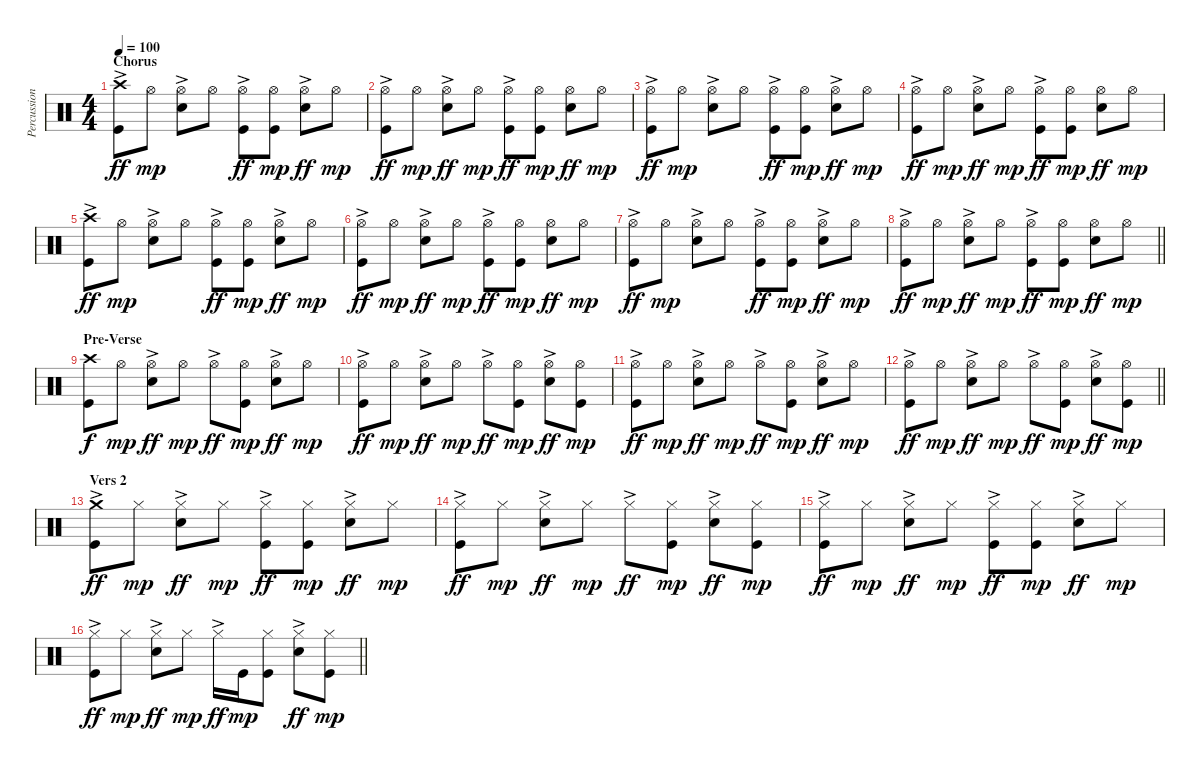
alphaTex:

\track ("Percussions" "Percussion") {instrument percussion}
\staff {score}
\articulation defaults
\ts (4 4)
\section ("" "Chorus")
\tempo 100
\clef neutral
\ks c
("Crash high (hit)"{ac} "Kick (hit)").8{dy ff} "Hi-Hat (open)".8{dy mp} ("Hi-Hat (open)"{ac} "Snare (hit) 2").8 "Hi-Hat (open)".8 ("Hi-Hat (open)"{ac} "Kick (hit)").8{dy ff} ("Hi-Hat (open)" "Kick (hit)").8{dy mp} ("Hi-Hat (open)"{ac} "Snare (hit) 2").8{dy ff} "Hi-Hat (open)".8{dy mp} |
("Hi-Hat (open)"{ac} "Kick (hit)").8{dy ff} "Hi-Hat (open)".8{dy mp} ("Hi-Hat (open)"{ac} "Snare (hit) 2").8{dy ff} "Hi-Hat (open)".8{dy mp} ("Hi-Hat (open)"{ac} "Kick (hit)").8{dy ff} ("Hi-Hat (open)" "Kick (hit)").8{dy mp} ("Hi-Hat (open)" "Snare (hit) 2").8{dy ff} "Hi-Hat (open)".8{dy mp} |
("Hi-Hat (open)"{ac} "Kick (hit)").8{dy ff} "Hi-Hat (open)".8{dy mp} ("Hi-Hat (open)"{ac} "Snare (hit) 2").8 "Hi-Hat (open)".8 ("Hi-Hat (open)"{ac} "Kick (hit)").8{dy ff} ("Hi-Hat (open)" "Kick (hit)").8{dy mp} ("Hi-Hat (open)"{ac} "Snare (hit) 2").8{dy ff} "Hi-Hat (open)".8{dy mp} |
("Hi-Hat (open)"{ac} "Kick (hit)").8{dy ff} "Hi-Hat (open)".8{dy mp} ("Hi-Hat (open)"{ac} "Snare (hit) 2").8{dy ff} "Hi-Hat (open)".8{dy mp} ("Hi-Hat (open)"{ac} "Kick (hit)").8{dy ff} ("Hi-Hat (open)" "Kick (hit)").8{dy mp} ("Hi-Hat (open)" "Snare (hit) 2").8{dy ff} "Hi-Hat (open)".8{dy mp} |
("Crash high (hit)"{ac} "Kick (hit)").8{dy ff} "Hi-Hat (open)".8{dy mp} ("Hi-Hat (open)"{ac} "Snare (hit) 2").8 "Hi-Hat (open)".8 ("Hi-Hat (open)"{ac} "Kick (hit)").8{dy ff} ("Hi-Hat (open)" "Kick (hit)").8{dy mp} ("Hi-Hat (open)"{ac} "Snare (hit) 2").8{dy ff} "Hi-Hat (open)".8{dy mp} |
("Hi-Hat (open)"{ac} "Kick (hit)").8{dy ff} "Hi-Hat (open)".8{dy mp} ("Hi-Hat (open)"{ac} "Snare (hit) 2").8{dy ff} "Hi-Hat (open)".8{dy mp} ("Hi-Hat (open)"{ac} "Kick (hit)").8{dy ff} ("Hi-Hat (open)" "Kick (hit)").8{dy mp} ("Hi-Hat (open)" "Snare (hit) 2").8{dy ff} "Hi-Hat (open)".8{dy mp} |
("Hi-Hat (open)"{ac} "Kick (hit)").8{dy ff} "Hi-Hat (open)".8{dy mp} ("Hi-Hat (open)"{ac} "Snare (hit) 2").8 "Hi-Hat (open)".8 ("Hi-Hat (open)"{ac} "Kick (hit)").8{dy ff} ("Hi-Hat (open)" "Kick (hit)").8{dy mp} ("Hi-Hat (open)"{ac} "Snare (hit) 2").8{dy ff} "Hi-Hat (open)".8{dy mp} |
\barLineRight lightlight
("Hi-Hat (open)"{ac} "Kick (hit)").8{dy ff} "Hi-Hat (open)".8{dy mp} ("Hi-Hat (open)"{ac} "Snare (hit) 2").8{dy ff} "Hi-Hat (open)".8{dy mp} ("Hi-Hat (open)"{ac} "Kick (hit)").8{dy ff} ("Hi-Hat (open)" "Kick (hit)").8{dy mp} ("Hi-Hat (open)" "Snare (hit) 2").8{dy ff} "Hi-Hat (open)".8{dy mp} |
\section ("" "Pre-Verse")
("Crash high (hit)" "Kick (hit)").8{dy f} "Hi-Hat (open)".8{dy mp} ("Hi-Hat (open)"{ac} "Snare (hit) 2").8{dy ff} "Hi-Hat (open)".8{dy mp} "Hi-Hat (open)"{ac}.8{dy ff} ("Hi-Hat (open)" "Kick (hit)").8{dy mp} ("Hi-Hat (open)"{ac} "Snare (hit) 2").8{dy ff} "Hi-Hat (open)".8{dy mp} |
("Hi-Hat (open)"{ac} "Kick (hit)").8{dy ff} "Hi-Hat (open)".8{dy mp} ("Hi-Hat (open)"{ac} "Snare (hit) 2").8{dy ff} "Hi-Hat (open)".8{dy mp} "Hi-Hat (open)"{ac}.8{dy ff} ("Hi-Hat (open)" "Kick (hit)").8{dy mp} ("Hi-Hat (open)"{ac} "Snare (hit) 2").8{dy ff} ("Hi-Hat (open)" "Kick (hit)").8{dy mp} |
("Hi-Hat (open)"{ac} "Kick (hit)").8{dy ff} "Hi-Hat (open)".8{dy mp} ("Hi-Hat (open)"{ac} "Snare (hit) 2").8{dy ff} "Hi-Hat (open)".8{dy mp} "Hi-Hat (open)"{ac}.8{dy ff} ("Hi-Hat (open)" "Kick (hit)").8{dy mp} ("Hi-Hat (open)"{ac} "Snare (hit) 2").8{dy ff} "Hi-Hat (open)".8{dy mp} |
\barLineRight lightlight
("Hi-Hat (open)"{ac} "Kick (hit)").8{dy ff} "Hi-Hat (open)".8{dy mp} ("Hi-Hat (open)"{ac} "Snare (hit) 2").8{dy ff} "Hi-Hat (open)".8{dy mp} "Hi-Hat (open)"{ac}.8{dy ff} ("Hi-Hat (open)" "Kick (hit)").8{dy mp} ("Hi-Hat (open)"{ac} "Snare (hit) 2").8{dy ff} ("Hi-Hat (open)" "Kick (hit)").8{dy mp} |
\section ("" "Vers 2")
("Crash medium (hit)"{ac} "Kick (hit)").8{dy ff} "Hi-Hat (closed)".8{dy mp} ("Hi-Hat (closed)"{ac} "Snare (hit) 2").8{dy ff} "Hi-Hat (closed)".8{dy mp} ("Hi-Hat (closed)"{ac} "Kick (hit)").8{dy ff} ("Hi-Hat (closed)" "Kick (hit)").8{dy mp} ("Hi-Hat (closed)"{ac} "Snare (hit) 2").8{dy ff} "Hi-Hat (closed)".8{dy mp} |
("Hi-Hat (closed)"{ac} "Kick (hit)").8{dy ff} "Hi-Hat (closed)".8{dy mp} ("Hi-Hat (closed)"{ac} "Snare (hit) 2").8{dy ff} "Hi-Hat (closed)".8{dy mp} "Hi-Hat (closed)"{ac}.8{dy ff} ("Hi-Hat (closed)" "Kick (hit)").8{dy mp} ("Hi-Hat (closed)"{ac} "Snare (hit) 2").8{dy ff} ("Hi-Hat (closed)" "Kick (hit)").8{dy mp} |
("Hi-Hat (closed)"{ac} "Kick (hit)").8{dy ff} "Hi-Hat (closed)".8{dy mp} ("Hi-Hat (closed)"{ac} "Snare (hit) 2").8{dy ff} "Hi-Hat (closed)".8{dy mp} ("Hi-Hat (closed)"{ac} "Kick (hit)").8{dy ff} ("Hi-Hat (closed)" "Kick (hit)").8{dy mp} ("Hi-Hat (closed)"{ac} "Snare (hit) 2").8{dy ff} "Hi-Hat (closed)".8{dy mp} |
\barLineRight lightlight
("Hi-Hat (closed)"{ac} "Kick (hit)").8{dy ff} "Hi-Hat (closed)".8{dy mp} ("Hi-Hat (closed)"{ac} "Snare (hit) 2").8{dy ff} "Hi-Hat (closed)".8{dy mp} "Hi-Hat (closed)"{ac}.16{dy ff} "Kick (hit)".16{dy mp} ("Hi-Hat (closed)" "Kick (hit)").8 ("Hi-Hat (closed)"{ac} "Snare (hit) 2").8{dy ff} ("Hi-Hat (closed)" "Kick (hit)").8{dy mp}
